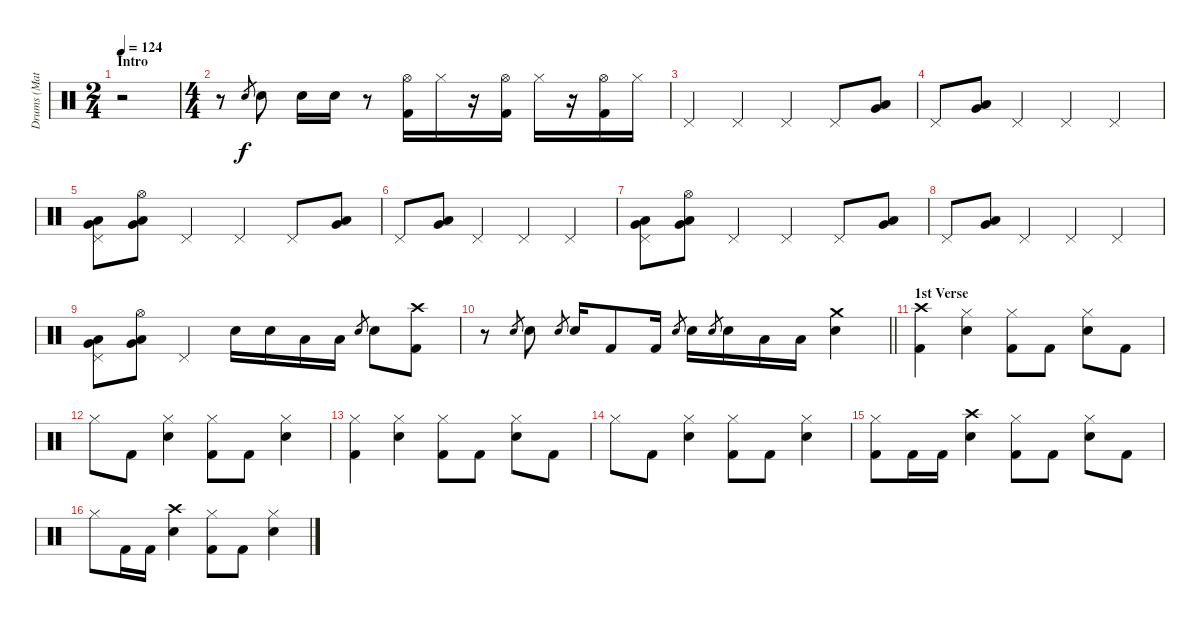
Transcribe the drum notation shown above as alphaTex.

\track ("Drums (Matt)" "Drums (Mat") {instrument percussion}
\staff {score}
\articulation defaults
\ts (2 4)
\section ("" "Intro")
\tempo 124
\clef neutral
\ks c
r.2{dy f} |
\ts (4 4)
r.8 "Snare (hit) 2".8{gr} "Snare (hit) 2".8 "Snare (hit) 2".16 "Snare (hit) 2".16 r.8 ("Hi-Hat (open)" "Kick (hit) 2").16 "Hi-Hat (closed)".16 r.16 ("Hi-Hat (open)" "Kick (hit) 2").16 "Hi-Hat (closed)".16 r.16 ("Hi-Hat (open)" "Kick (hit) 2").16 "Hi-Hat (closed)".16 |
"Pedal Hi-Hat (hit)".4 "Pedal Hi-Hat (hit)".4 "Pedal Hi-Hat (hit)".4 "Pedal Hi-Hat (hit)".8 ("Low Tom (hit)" "Very Low Tom (hit)").8 |
"Pedal Hi-Hat (hit)".8 ("Low Tom (hit)" "Very Low Tom (hit)").8 "Pedal Hi-Hat (hit)".4 "Pedal Hi-Hat (hit)".4 "Pedal Hi-Hat (hit)".4 |
("Low Tom (hit)" "Very Low Tom (hit)" "Pedal Hi-Hat (hit)").8 ("Hi-Hat (open)" "Low Tom (hit)" "Very Low Tom (hit)").8 "Pedal Hi-Hat (hit)".4 "Pedal Hi-Hat (hit)".4 "Pedal Hi-Hat (hit)".8 ("Low Tom (hit)" "Very Low Tom (hit)").8 |
"Pedal Hi-Hat (hit)".8 ("Low Tom (hit)" "Very Low Tom (hit)").8 "Pedal Hi-Hat (hit)".4 "Pedal Hi-Hat (hit)".4 "Pedal Hi-Hat (hit)".4 |
("Low Tom (hit)" "Very Low Tom (hit)" "Pedal Hi-Hat (hit)").8 ("Hi-Hat (open)" "Low Tom (hit)" "Very Low Tom (hit)").8 "Pedal Hi-Hat (hit)".4 "Pedal Hi-Hat (hit)".4 "Pedal Hi-Hat (hit)".8 ("Low Tom (hit)" "Very Low Tom (hit)").8 |
"Pedal Hi-Hat (hit)".8 ("Low Tom (hit)" "Very Low Tom (hit)").8 "Pedal Hi-Hat (hit)".4 "Pedal Hi-Hat (hit)".4 "Pedal Hi-Hat (hit)".4 |
("Low Tom (hit)" "Very Low Tom (hit)" "Pedal Hi-Hat (hit)").8 ("Hi-Hat (open)" "Low Tom (hit)" "Very Low Tom (hit)").8 "Pedal Hi-Hat (hit)".4 "Snare (hit) 2".16 "Snare (hit) 2".16 "Low Tom (hit)".16 "Low Tom (hit)".16 "Snare (hit) 2".8{gr} "Snare (hit) 2".8 ("Crash high (hit)" "Kick (hit) 2").8 |
\barLineRight lightlight
r.8 "Snare (hit) 2".8{gr} "Snare (hit) 2".8 "Snare (hit) 2".8{gr} "Snare (hit) 2".16 "Kick (hit) 2".8 "Kick (hit) 2".16 "Snare (hit) 2".8{gr} "Snare (hit) 2".16 "Snare (hit) 2".8{gr} "Snare (hit) 2".16 "Low Tom (hit)".16 "Low Tom (hit)".16 ("Crash medium (hit)" "Snare (hit) 2").4 |
\section ("" "1st Verse")
("Crash high (hit)" "Kick (hit) 2").4 ("Hi-Hat (closed)" "Snare (hit) 2").4 ("Hi-Hat (closed)" "Kick (hit) 2").8 "Kick (hit) 2".8 ("Hi-Hat (closed)" "Snare (hit) 2").8 "Kick (hit) 2".8 |
"Hi-Hat (closed)".8 "Kick (hit) 2".8 ("Hi-Hat (closed)" "Snare (hit) 2").4 ("Hi-Hat (closed)" "Kick (hit) 2").8 "Kick (hit) 2".8 ("Hi-Hat (closed)" "Snare (hit) 2").4 |
("Hi-Hat (closed)" "Kick (hit) 2").4 ("Hi-Hat (closed)" "Snare (hit) 2").4 ("Hi-Hat (closed)" "Kick (hit) 2").8 "Kick (hit) 2".8 ("Hi-Hat (closed)" "Snare (hit) 2").8 "Kick (hit) 2".8 |
"Hi-Hat (closed)".8 "Kick (hit) 2".8 ("Hi-Hat (closed)" "Snare (hit) 2").4 ("Hi-Hat (closed)" "Kick (hit) 2").8 "Kick (hit) 2".8 ("Hi-Hat (closed)" "Snare (hit) 2").4 |
("Hi-Hat (closed)" "Kick (hit) 2").8 "Kick (hit) 2".16 "Kick (hit) 2".16 ("Crash high (hit)" "Snare (hit) 2").4 ("Hi-Hat (closed)" "Kick (hit) 2").8 "Kick (hit) 2".8 ("Hi-Hat (closed)" "Snare (hit) 2").8 "Kick (hit) 2".8 |
"Hi-Hat (closed)".8 "Kick (hit) 2".16 "Kick (hit) 2".16 ("Crash high (hit)" "Snare (hit) 2").4 ("Hi-Hat (closed)" "Kick (hit) 2").8 "Kick (hit) 2".8 ("Hi-Hat (closed)" "Snare (hit) 2").4
